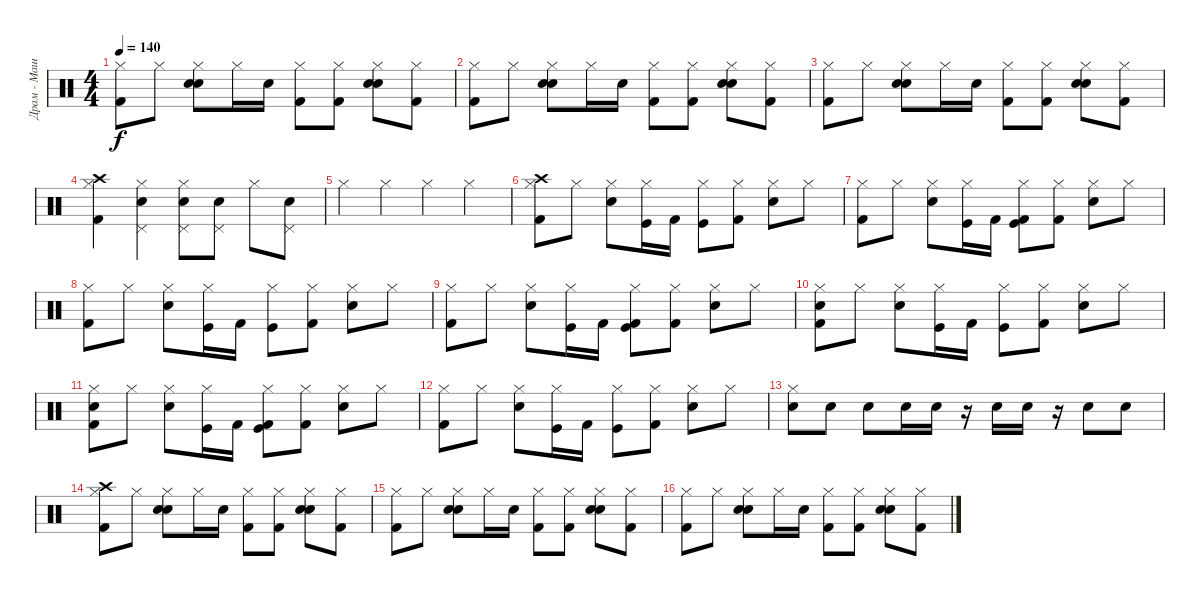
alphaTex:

\track ("Драм - Машина" "Драм - Маш") {instrument percussion}
\staff {score}
\articulation defaults
\ts (4 4)
\tempo 140
\clef neutral
\ks c
("Kick (hit) 2" "Hi-Hat (closed)").8{dy f} "Hi-Hat (closed)".8 ("Hand Clap (hit)" "Snare (hit) 2" "Hi-Hat (closed)").8 "Hi-Hat (closed)".16 "Snare (hit) 2".16 ("Kick (hit) 2" "Hi-Hat (closed)").8 ("Hi-Hat (closed)" "Kick (hit) 2").8 ("Hand Clap (hit)" "Snare (hit) 2" "Hi-Hat (closed)").8 ("Hi-Hat (closed)" "Kick (hit) 2").8 |
("Kick (hit) 2" "Hi-Hat (closed)").8 "Hi-Hat (closed)".8 ("Hand Clap (hit)" "Snare (hit) 2" "Hi-Hat (closed)").8 "Hi-Hat (closed)".16 "Snare (hit) 2".16 ("Kick (hit) 2" "Hi-Hat (closed)").8 ("Hi-Hat (closed)" "Kick (hit) 2").8 ("Hand Clap (hit)" "Snare (hit) 2" "Hi-Hat (closed)").8 ("Hi-Hat (closed)" "Kick (hit) 2").8 |
("Kick (hit) 2" "Hi-Hat (closed)").8 "Hi-Hat (closed)".8 ("Hand Clap (hit)" "Snare (hit) 2" "Hi-Hat (closed)").8 "Hi-Hat (closed)".16 "Snare (hit) 2".16 ("Kick (hit) 2" "Hi-Hat (closed)").8 ("Hi-Hat (closed)" "Kick (hit) 2").8 ("Hand Clap (hit)" "Snare (hit) 2" "Hi-Hat (closed)").8 ("Hi-Hat (closed)" "Kick (hit) 2").8 |
("Hi-Hat (closed)" "Crash high (hit)" "Kick (hit) 2").4 ("Hi-Hat (closed)" "Pedal Hi-Hat (hit)" "Snare (hit) 2").4 ("Hi-Hat (closed)" "Pedal Hi-Hat (hit)" "Snare (hit) 2").8 ("Pedal Hi-Hat (hit)" "Snare (hit) 2").8 "Hi-Hat (closed)".8 ("Pedal Hi-Hat (hit)" "Snare (hit) 2").8 |
"Hi-Hat (closed)".4 "Hi-Hat (closed)".4 "Hi-Hat (closed)".4 "Hi-Hat (closed)".4 |
("Crash high (hit)" "Hi-Hat (closed)" "Kick (hit) 2").8 "Hi-Hat (closed)".8 ("Hi-Hat (closed)" "Electric Snare (hit)").8 ("Hi-Hat (closed)" "Kick (hit)").16 "Kick (hit) 2".16 ("Hi-Hat (closed)" "Kick (hit)").8 ("Hi-Hat (closed)" "Kick (hit) 2").8 ("Hi-Hat (closed)" "Electric Snare (hit)").8 "Hi-Hat (closed)".8 |
("Hi-Hat (closed)" "Kick (hit) 2").8 "Hi-Hat (closed)".8 ("Hi-Hat (closed)" "Electric Snare (hit)").8 ("Hi-Hat (closed)" "Kick (hit)").16 "Kick (hit) 2".16 ("Kick (hit) 2" "Hi-Hat (closed)" "Kick (hit)").8 ("Hi-Hat (closed)" "Kick (hit) 2").8 ("Hi-Hat (closed)" "Electric Snare (hit)").8 "Hi-Hat (closed)".8 |
("Hi-Hat (closed)" "Kick (hit) 2").8 "Hi-Hat (closed)".8 ("Hi-Hat (closed)" "Electric Snare (hit)").8 ("Hi-Hat (closed)" "Kick (hit)").16 "Kick (hit) 2".16 ("Hi-Hat (closed)" "Kick (hit)").8 ("Hi-Hat (closed)" "Kick (hit) 2").8 ("Hi-Hat (closed)" "Electric Snare (hit)").8 "Hi-Hat (closed)".8 |
("Hi-Hat (closed)" "Kick (hit) 2").8 "Hi-Hat (closed)".8 ("Hi-Hat (closed)" "Electric Snare (hit)").8 ("Hi-Hat (closed)" "Kick (hit)").16 "Kick (hit) 2".16 ("Kick (hit) 2" "Hi-Hat (closed)" "Kick (hit)").8 ("Hi-Hat (closed)" "Kick (hit) 2").8 ("Hi-Hat (closed)" "Electric Snare (hit)").8 "Hi-Hat (closed)".8 |
("Snare (hit) 2" "Hi-Hat (closed)" "Kick (hit) 2").8 "Hi-Hat (closed)".8 ("Hi-Hat (closed)" "Electric Snare (hit)").8 ("Hi-Hat (closed)" "Kick (hit)").16 "Kick (hit) 2".16 ("Hi-Hat (closed)" "Kick (hit)").8 ("Hi-Hat (closed)" "Kick (hit) 2").8 ("Electric Snare (hit)" "Hi-Hat (closed)").8 "Hi-Hat (closed)".8 |
("Snare (hit) 2" "Hi-Hat (closed)" "Kick (hit) 2").8 "Hi-Hat (closed)".8 ("Hi-Hat (closed)" "Electric Snare (hit)").8 ("Hi-Hat (closed)" "Kick (hit)").16 "Kick (hit) 2".16 ("Kick (hit) 2" "Hi-Hat (closed)" "Kick (hit)").8 ("Hi-Hat (closed)" "Kick (hit) 2").8 ("Hi-Hat (closed)" "Electric Snare (hit)").8 "Hi-Hat (closed)".8 |
("Hi-Hat (closed)" "Kick (hit) 2").8 "Hi-Hat (closed)".8 ("Hi-Hat (closed)" "Electric Snare (hit)").8 ("Hi-Hat (closed)" "Kick (hit)").16 "Kick (hit) 2".16 ("Hi-Hat (closed)" "Kick (hit)").8 ("Hi-Hat (closed)" "Kick (hit) 2").8 ("Hi-Hat (closed)" "Electric Snare (hit)").8 "Hi-Hat (closed)".8 |
("Hi-Hat (closed)" "Snare (hit) 2").8 "Electric Snare (hit)".8 "Electric Snare (hit)".8 "Snare (hit) 2".16 "Electric Snare (hit)".16 r.16 "Electric Snare (hit)".16 "Snare (hit) 2".16 r.16 "Electric Snare (hit)".8 "Electric Snare (hit)".8 |
("Kick (hit) 2" "Hi-Hat (closed)" "Crash high (hit)").8 "Hi-Hat (closed)".8 ("Hand Clap (hit)" "Snare (hit) 2" "Hi-Hat (closed)").8 "Hi-Hat (closed)".16 "Snare (hit) 2".16 ("Kick (hit) 2" "Hi-Hat (closed)").8 ("Hi-Hat (closed)" "Kick (hit) 2").8 ("Hand Clap (hit)" "Snare (hit) 2" "Hi-Hat (closed)").8 ("Hi-Hat (closed)" "Kick (hit) 2").8 |
("Kick (hit) 2" "Hi-Hat (closed)").8 "Hi-Hat (closed)".8 ("Hand Clap (hit)" "Snare (hit) 2" "Hi-Hat (closed)").8 "Hi-Hat (closed)".16 "Snare (hit) 2".16 ("Kick (hit) 2" "Hi-Hat (closed)").8 ("Hi-Hat (closed)" "Kick (hit) 2").8 ("Hand Clap (hit)" "Snare (hit) 2" "Hi-Hat (closed)").8 ("Hi-Hat (closed)" "Kick (hit) 2").8 |
("Kick (hit) 2" "Hi-Hat (closed)").8 "Hi-Hat (closed)".8 ("Hand Clap (hit)" "Snare (hit) 2" "Hi-Hat (closed)").8 "Hi-Hat (closed)".16 "Snare (hit) 2".16 ("Kick (hit) 2" "Hi-Hat (closed)").8 ("Hi-Hat (closed)" "Kick (hit) 2").8 ("Hand Clap (hit)" "Snare (hit) 2" "Hi-Hat (closed)").8 ("Hi-Hat (closed)" "Kick (hit) 2").8
